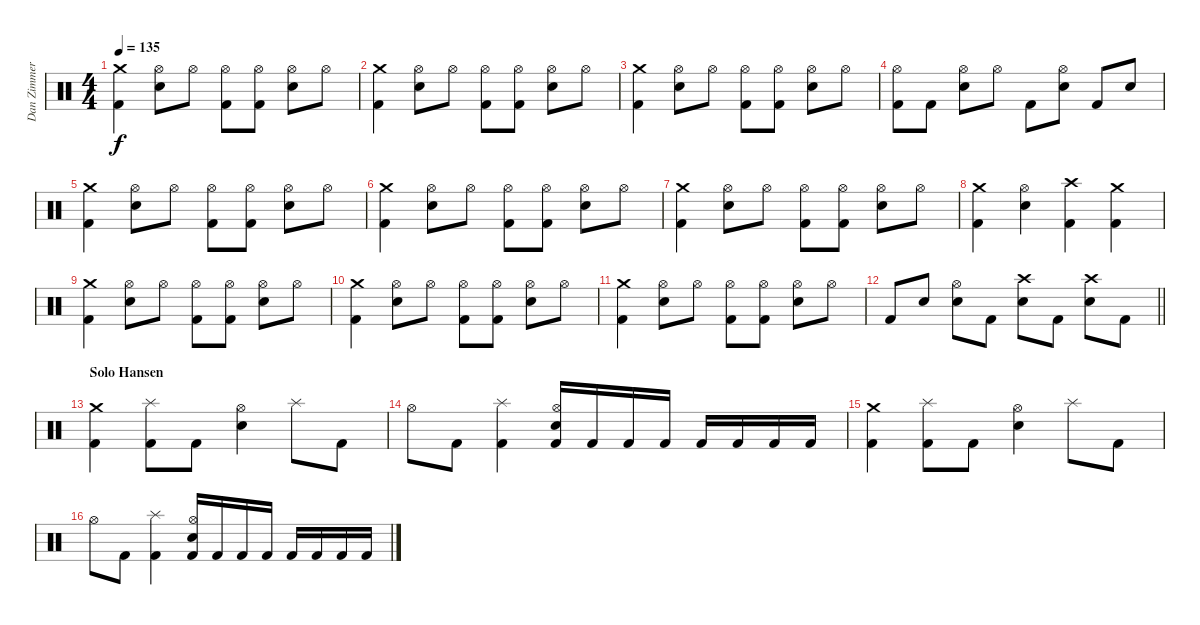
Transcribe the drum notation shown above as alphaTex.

\track ("Dan Zimmermann" "Dan Zimmer") {instrument percussion}
\staff {score}
\articulation defaults
\ts (4 4)
\tempo 135
\clef neutral
\ks c
("Crash medium (hit)" "Kick (hit) 2").4{dy f} ("Hi-Hat (open)" "Electric Snare (hit)").8 "Hi-Hat (open)".8 ("Hi-Hat (open)" "Kick (hit) 2").8 ("Hi-Hat (open)" "Kick (hit) 2").8 ("Hi-Hat (open)" "Electric Snare (hit)").8 "Hi-Hat (open)".8 |
("Crash medium (hit)" "Kick (hit) 2").4 ("Hi-Hat (open)" "Electric Snare (hit)").8 "Hi-Hat (open)".8 ("Hi-Hat (open)" "Kick (hit) 2").8 ("Hi-Hat (open)" "Kick (hit) 2").8 ("Hi-Hat (open)" "Electric Snare (hit)").8 "Hi-Hat (open)".8 |
("Crash medium (hit)" "Kick (hit) 2").4 ("Hi-Hat (open)" "Electric Snare (hit)").8 "Hi-Hat (open)".8 ("Hi-Hat (open)" "Kick (hit) 2").8 ("Hi-Hat (open)" "Kick (hit) 2").8 ("Hi-Hat (open)" "Electric Snare (hit)").8 "Hi-Hat (open)".8 |
("Hi-Hat (open)" "Kick (hit) 2").8 "Kick (hit) 2".8 ("Hi-Hat (open)" "Electric Snare (hit)").8 "Hi-Hat (open)".8 "Kick (hit) 2".8 ("Hi-Hat (open)" "Electric Snare (hit)").8 "Kick (hit) 2".8 "Electric Snare (hit)".8 |
("Crash medium (hit)" "Kick (hit) 2").4 ("Hi-Hat (open)" "Electric Snare (hit)").8 "Hi-Hat (open)".8 ("Hi-Hat (open)" "Kick (hit) 2").8 ("Hi-Hat (open)" "Kick (hit) 2").8 ("Hi-Hat (open)" "Electric Snare (hit)").8 "Hi-Hat (open)".8 |
("Crash medium (hit)" "Kick (hit) 2").4 ("Hi-Hat (open)" "Electric Snare (hit)").8 "Hi-Hat (open)".8 ("Hi-Hat (open)" "Kick (hit) 2").8 ("Hi-Hat (open)" "Kick (hit) 2").8 ("Hi-Hat (open)" "Electric Snare (hit)").8 "Hi-Hat (open)".8 |
("Crash medium (hit)" "Kick (hit) 2").4 ("Hi-Hat (open)" "Electric Snare (hit)").8 "Hi-Hat (open)".8 ("Hi-Hat (open)" "Kick (hit) 2").8 ("Hi-Hat (open)" "Kick (hit) 2").8 ("Hi-Hat (open)" "Electric Snare (hit)").8 "Hi-Hat (open)".8 |
("Crash medium (hit)" "Kick (hit) 2").4 ("Hi-Hat (open)" "Electric Snare (hit)").4 ("Crash high (hit)" "Kick (hit) 2").4 ("Crash medium (hit)" "Kick (hit) 2").4 |
("Crash medium (hit)" "Kick (hit) 2").4 ("Hi-Hat (open)" "Electric Snare (hit)").8 "Hi-Hat (open)".8 ("Hi-Hat (open)" "Kick (hit) 2").8 ("Hi-Hat (open)" "Kick (hit) 2").8 ("Hi-Hat (open)" "Electric Snare (hit)").8 "Hi-Hat (open)".8 |
("Crash medium (hit)" "Kick (hit) 2").4 ("Hi-Hat (open)" "Electric Snare (hit)").8 "Hi-Hat (open)".8 ("Hi-Hat (open)" "Kick (hit) 2").8 ("Hi-Hat (open)" "Kick (hit) 2").8 ("Hi-Hat (open)" "Electric Snare (hit)").8 "Hi-Hat (open)".8 |
("Crash medium (hit)" "Kick (hit) 2").4 ("Hi-Hat (open)" "Electric Snare (hit)").8 "Hi-Hat (open)".8 ("Hi-Hat (open)" "Kick (hit) 2").8 ("Hi-Hat (open)" "Kick (hit) 2").8 ("Hi-Hat (open)" "Electric Snare (hit)").8 "Hi-Hat (open)".8 |
\barLineRight lightlight "Kick (hit) 2".8 "Electric Snare (hit)".8
("Hi-Hat (open)" "Electric Snare (hit)").8 "Kick (hit) 2".8 ("Crash high (hit)" "Electric Snare (hit)").8 "Kick (hit) 2".8 ("Crash high (hit)" "Electric Snare (hit)").8 "Kick (hit) 2".8 |
\section ("" "Solo Hansen")
("Crash medium (hit)" "Kick (hit) 2").4 ("Splash (hit)" "Kick (hit) 2").8 "Kick (hit) 2".8 ("Hi-Hat (open)" "Electric Snare (hit)").4 "Splash (hit)".8 "Kick (hit) 2".8 |
"Hi-Hat (open)".8 "Kick (hit) 2".8 ("Splash (hit)" "Kick (hit) 2").4 ("Hi-Hat (open)" "Electric Snare (hit)" "Kick (hit) 2").16 "Kick (hit) 2".16 "Kick (hit) 2".16 "Kick (hit) 2".16 "Kick (hit) 2".16 "Kick (hit) 2".16 "Kick (hit) 2".16 "Kick (hit) 2".16 |
("Crash medium (hit)" "Kick (hit) 2").4 ("Splash (hit)" "Kick (hit) 2").8 "Kick (hit) 2".8 ("Hi-Hat (open)" "Electric Snare (hit)").4 "Splash (hit)".8 "Kick (hit) 2".8 |
"Hi-Hat (open)".8 "Kick (hit) 2".8 ("Splash (hit)" "Kick (hit) 2").4 ("Hi-Hat (open)" "Electric Snare (hit)" "Kick (hit) 2").16 "Kick (hit) 2".16 "Kick (hit) 2".16 "Kick (hit) 2".16 "Kick (hit) 2".16 "Kick (hit) 2".16 "Kick (hit) 2".16 "Kick (hit) 2".16
